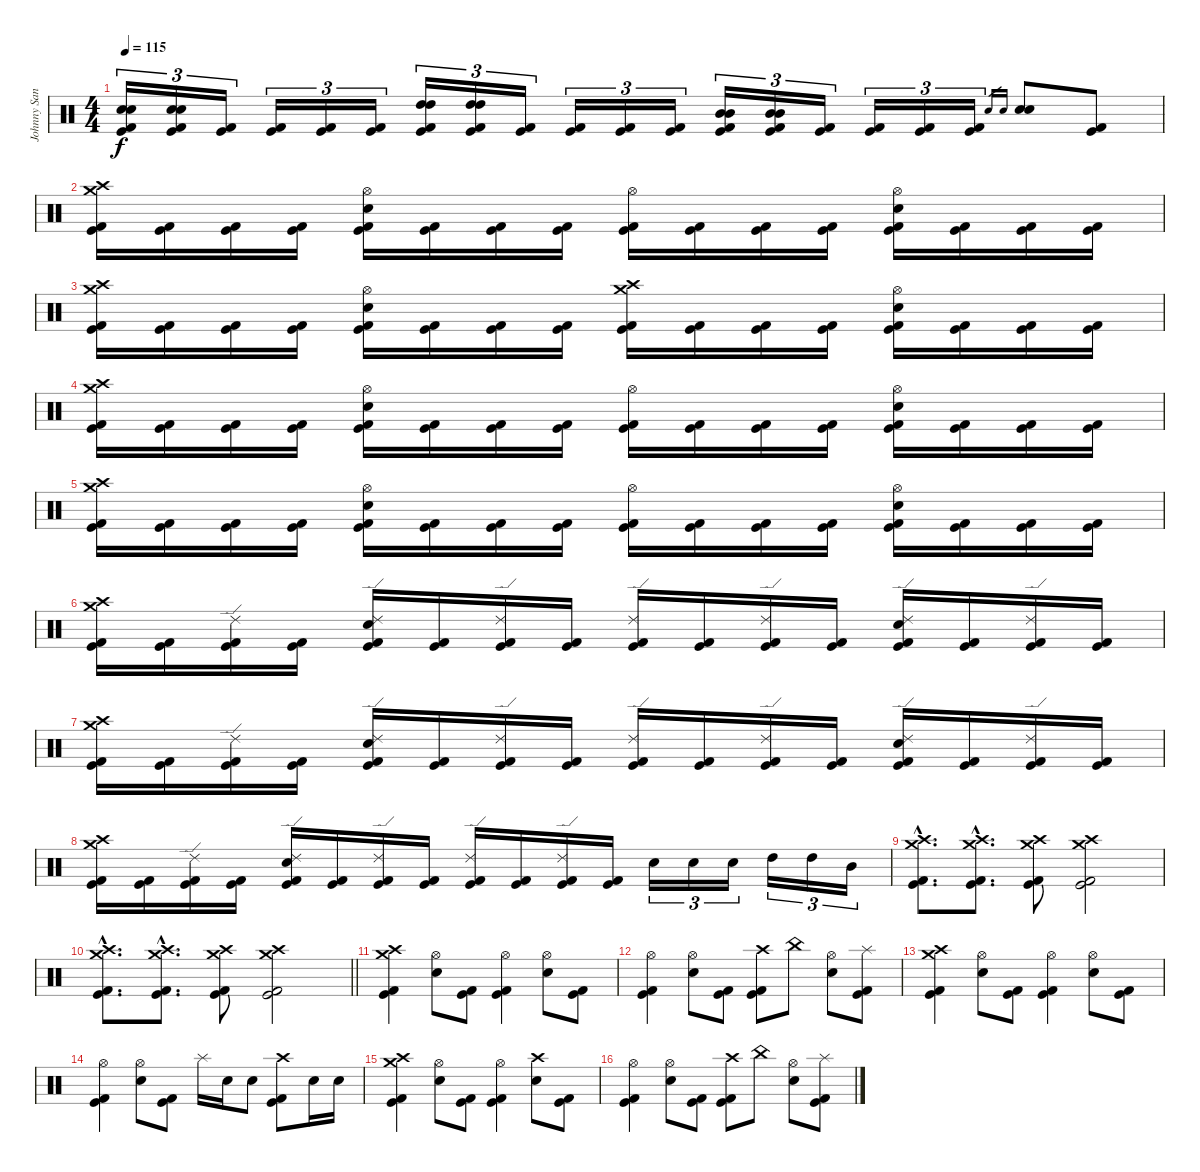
\track ("Johnny Sandin" "Johnny San") {instrument percussion}
\staff {score}
\articulation defaults
\ts (4 4)
\tempo 115
\clef neutral
\ks c
("Snare (hit) 2" "Snare (hit) 2" "Kick (hit) 2" "Kick (hit)").16{tu (3 2) dy f} ("Snare (hit) 2" "Snare (hit) 2" "Kick (hit) 2" "Kick (hit)").16{tu (3 2)} ("Kick (hit) 2" "Kick (hit)").16{tu (3 2)} ("Kick (hit) 2" "Kick (hit)").16{tu (3 2)} ("Kick (hit) 2" "Kick (hit)").16{tu (3 2)} ("Kick (hit) 2" "Kick (hit)").16{tu (3 2)} ("High Tom (hit)" "High Tom (hit)" "Kick (hit) 2" "Kick (hit)").16{tu (3 2)} ("High Tom (hit)" "High Tom (hit)" "Kick (hit) 2" "Kick (hit)").16{tu (3 2)} ("Kick (hit) 2" "Kick (hit)").16{tu (3 2)} ("Kick (hit) 2" "Kick (hit)").16{tu (3 2)} ("Kick (hit) 2" "Kick (hit)").16{tu (3 2)} ("Kick (hit) 2" "Kick (hit)").16{tu (3 2)} ("Mid Tom (hit)" "Mid Tom (hit)" "Kick (hit) 2" "Kick (hit)").16{tu (3 2)} ("Mid Tom (hit)" "Mid Tom (hit)" "Kick (hit) 2" "Kick (hit)").16{tu (3 2)} ("Kick (hit) 2" "Kick (hit)").16{tu (3 2)} ("Kick (hit) 2" "Kick (hit)").16{tu (3 2)} ("Kick (hit) 2" "Kick (hit)").16{tu (3 2)} ("Kick (hit) 2" "Kick (hit)").16{tu (3 2)} "Snare (hit) 2".16{gr} "Snare (hit) 2".16{gr} ("Snare (hit) 2" "Snare (hit) 2").8 ("Kick (hit) 2" "Kick (hit)").8 |
("Crash medium (hit)" "Crash high (hit)" "Kick (hit) 2" "Kick (hit)").16 ("Kick (hit) 2" "Kick (hit)").16 ("Kick (hit) 2" "Kick (hit)").16 ("Kick (hit) 2" "Kick (hit)").16 ("Hi-Hat (open)" "Snare (hit) 2" "Kick (hit) 2" "Kick (hit)").16 ("Kick (hit) 2" "Kick (hit)").16 ("Kick (hit) 2" "Kick (hit)").16 ("Kick (hit) 2" "Kick (hit)").16 ("Hi-Hat (open)" "Kick (hit) 2" "Kick (hit)").16 ("Kick (hit) 2" "Kick (hit)").16 ("Kick (hit) 2" "Kick (hit)").16 ("Kick (hit) 2" "Kick (hit)").16 ("Hi-Hat (open)" "Snare (hit) 2" "Kick (hit) 2" "Kick (hit)").16 ("Kick (hit) 2" "Kick (hit)").16 ("Kick (hit) 2" "Kick (hit)").16 ("Kick (hit) 2" "Kick (hit)").16 |
("Crash medium (hit)" "Crash high (hit)" "Kick (hit) 2" "Kick (hit)").16 ("Kick (hit) 2" "Kick (hit)").16 ("Kick (hit) 2" "Kick (hit)").16 ("Kick (hit) 2" "Kick (hit)").16 ("Hi-Hat (open)" "Snare (hit) 2" "Kick (hit) 2" "Kick (hit)").16 ("Kick (hit) 2" "Kick (hit)").16 ("Kick (hit) 2" "Kick (hit)").16 ("Kick (hit) 2" "Kick (hit)").16 ("Crash medium (hit)" "Crash high (hit)" "Kick (hit) 2" "Kick (hit)").16 ("Kick (hit) 2" "Kick (hit)").16 ("Kick (hit) 2" "Kick (hit)").16 ("Kick (hit) 2" "Kick (hit)").16 ("Hi-Hat (open)" "Snare (hit) 2" "Kick (hit) 2" "Kick (hit)").16 ("Kick (hit) 2" "Kick (hit)").16 ("Kick (hit) 2" "Kick (hit)").16 ("Kick (hit) 2" "Kick (hit)").16 |
("Crash medium (hit)" "Crash high (hit)" "Kick (hit) 2" "Kick (hit)").16 ("Kick (hit) 2" "Kick (hit)").16 ("Kick (hit) 2" "Kick (hit)").16 ("Kick (hit) 2" "Kick (hit)").16 ("Hi-Hat (open)" "Snare (hit) 2" "Kick (hit) 2" "Kick (hit)").16 ("Kick (hit) 2" "Kick (hit)").16 ("Kick (hit) 2" "Kick (hit)").16 ("Kick (hit) 2" "Kick (hit)").16 ("Hi-Hat (open)" "Kick (hit) 2" "Kick (hit)").16 ("Kick (hit) 2" "Kick (hit)").16 ("Kick (hit) 2" "Kick (hit)").16 ("Kick (hit) 2" "Kick (hit)").16 ("Hi-Hat (open)" "Snare (hit) 2" "Kick (hit) 2" "Kick (hit)").16 ("Kick (hit) 2" "Kick (hit)").16 ("Kick (hit) 2" "Kick (hit)").16 ("Kick (hit) 2" "Kick (hit)").16 |
("Crash medium (hit)" "Crash high (hit)" "Kick (hit) 2" "Kick (hit)").16 ("Kick (hit) 2" "Kick (hit)").16 ("Kick (hit) 2" "Kick (hit)").16 ("Kick (hit) 2" "Kick (hit)").16 ("Hi-Hat (open)" "Snare (hit) 2" "Kick (hit) 2" "Kick (hit)").16 ("Kick (hit) 2" "Kick (hit)").16 ("Kick (hit) 2" "Kick (hit)").16 ("Kick (hit) 2" "Kick (hit)").16 ("Hi-Hat (open)" "Kick (hit) 2" "Kick (hit)").16 ("Kick (hit) 2" "Kick (hit)").16 ("Kick (hit) 2" "Kick (hit)").16 ("Kick (hit) 2" "Kick (hit)").16 ("Hi-Hat (open)" "Snare (hit) 2" "Kick (hit) 2" "Kick (hit)").16 ("Kick (hit) 2" "Kick (hit)").16 ("Kick (hit) 2" "Kick (hit)").16 ("Kick (hit) 2" "Kick (hit)").16 |
("Crash medium (hit)" "Crash high (hit)" "Kick (hit) 2" "Kick (hit)").16 ("Kick (hit) 2" "Kick (hit)").16 ("Ride (edge) 2" "Kick (hit) 2" "Kick (hit)").16 ("Kick (hit) 2" "Kick (hit)").16 ("Ride (edge) 2" "Snare (hit) 2" "Kick (hit) 2" "Kick (hit)").16 ("Kick (hit) 2" "Kick (hit)").16 ("Ride (edge) 2" "Kick (hit) 2" "Kick (hit)").16 ("Kick (hit) 2" "Kick (hit)").16 ("Ride (edge) 2" "Kick (hit) 2" "Kick (hit)").16 ("Kick (hit) 2" "Kick (hit)").16 ("Ride (edge) 2" "Kick (hit) 2" "Kick (hit)").16 ("Kick (hit) 2" "Kick (hit)").16 ("Ride (edge) 2" "Snare (hit) 2" "Kick (hit) 2" "Kick (hit)").16 ("Kick (hit) 2" "Kick (hit)").16 ("Ride (edge) 2" "Kick (hit) 2" "Kick (hit)").16 ("Kick (hit) 2" "Kick (hit)").16 |
("Crash medium (hit)" "Crash high (hit)" "Kick (hit) 2" "Kick (hit)").16 ("Kick (hit) 2" "Kick (hit)").16 ("Ride (edge) 2" "Kick (hit) 2" "Kick (hit)").16 ("Kick (hit) 2" "Kick (hit)").16 ("Ride (edge) 2" "Snare (hit) 2" "Kick (hit) 2" "Kick (hit)").16 ("Kick (hit) 2" "Kick (hit)").16 ("Ride (edge) 2" "Kick (hit) 2" "Kick (hit)").16 ("Kick (hit) 2" "Kick (hit)").16 ("Ride (edge) 2" "Kick (hit) 2" "Kick (hit)").16 ("Kick (hit) 2" "Kick (hit)").16 ("Ride (edge) 2" "Kick (hit) 2" "Kick (hit)").16 ("Kick (hit) 2" "Kick (hit)").16 ("Ride (edge) 2" "Snare (hit) 2" "Kick (hit) 2" "Kick (hit)").16 ("Kick (hit) 2" "Kick (hit)").16 ("Ride (edge) 2" "Kick (hit) 2" "Kick (hit)").16 ("Kick (hit) 2" "Kick (hit)").16 |
("Crash medium (hit)" "Crash high (hit)" "Kick (hit) 2" "Kick (hit)").16 ("Kick (hit) 2" "Kick (hit)").16 ("Ride (edge) 2" "Kick (hit) 2" "Kick (hit)").16 ("Kick (hit) 2" "Kick (hit)").16 ("Ride (edge) 2" "Snare (hit) 2" "Kick (hit) 2" "Kick (hit)").16 ("Kick (hit) 2" "Kick (hit)").16 ("Ride (edge) 2" "Kick (hit) 2" "Kick (hit)").16 ("Kick (hit) 2" "Kick (hit)").16 ("Ride (edge) 2" "Kick (hit) 2" "Kick (hit)").16 ("Kick (hit) 2" "Kick (hit)").16 ("Ride (edge) 2" "Kick (hit) 2" "Kick (hit)").16 ("Kick (hit) 2" "Kick (hit)").16 "Snare (hit) 2".16{tu (3 2)} "Snare (hit) 2".16{tu (3 2)} "Snare (hit) 2".16{tu (3 2)} "High Tom (hit)".16{tu (3 2)} "High Tom (hit)".16{tu (3 2)} "Mid Tom (hit)".16{tu (3 2)} |
("Crash medium (hit)"{hac} "Crash high (hit)"{hac} "Kick (hit) 2"{hac} "Kick (hit)"{hac}).8{d} ("Crash medium (hit)"{hac} "Crash high (hit)"{hac} "Kick (hit) 2"{hac} "Kick (hit)"{hac}).8{d} ("Crash medium (hit)" "Crash high (hit)" "Kick (hit) 2" "Kick (hit)").8 ("Crash medium (hit)" "Crash high (hit)" "Kick (hit) 2" "Kick (hit)").2 |
\barLineRight lightlight
("Crash medium (hit)"{hac} "Crash high (hit)"{hac} "Kick (hit) 2"{hac} "Kick (hit)"{hac}).8{d} ("Crash medium (hit)"{hac} "Crash high (hit)"{hac} "Kick (hit) 2"{hac} "Kick (hit)"{hac}).8{d} ("Crash medium (hit)" "Crash high (hit)" "Kick (hit) 2" "Kick (hit)").8 ("Crash medium (hit)" "Crash high (hit)" "Kick (hit) 2" "Kick (hit)").2 |
("Crash medium (hit)" "Crash high (hit)" "Kick (hit) 2" "Kick (hit)").4 ("Hi-Hat (open)" "Snare (hit) 2").8 ("Kick (hit) 2" "Kick (hit)").8 ("Hi-Hat (open)" "Kick (hit) 2" "Kick (hit)").4 ("Hi-Hat (open)" "Snare (hit) 2").8 ("Kick (hit) 2" "Kick (hit)").8 |
("Hi-Hat (open)" "Kick (hit) 2" "Kick (hit)").4 ("Hi-Hat (open)" "Snare (hit) 2").8 ("Kick (hit) 2" "Kick (hit)").8 ("Crash high (hit)" "Kick (hit) 2" "Kick (hit)").8 "China (hit)".8 ("Hi-Hat (open)" "Snare (hit) 2").8 ("Splash (hit)" "Kick (hit) 2" "Kick (hit)").8 |
("Crash medium (hit)" "Crash high (hit)" "Kick (hit) 2" "Kick (hit)").4 ("Hi-Hat (open)" "Snare (hit) 2").8 ("Kick (hit) 2" "Kick (hit)").8 ("Hi-Hat (open)" "Kick (hit) 2" "Kick (hit)").4 ("Hi-Hat (open)" "Snare (hit) 2").8 ("Kick (hit) 2" "Kick (hit)").8 |
("Hi-Hat (open)" "Kick (hit) 2" "Kick (hit)").4 ("Hi-Hat (open)" "Snare (hit) 2").8 ("Kick (hit) 2" "Kick (hit)").8 "Splash (hit)".16 "Snare (hit) 2".16 "Snare (hit) 2".8 ("Crash high (hit)" "Kick (hit) 2" "Kick (hit)").8 "Snare (hit) 2".16 "Snare (hit) 2".16 |
("Crash medium (hit)" "Crash high (hit)" "Kick (hit) 2" "Kick (hit)").4 ("Hi-Hat (open)" "Snare (hit) 2").8 ("Kick (hit) 2" "Kick (hit)").8 ("Hi-Hat (open)" "Kick (hit) 2" "Kick (hit)").4 ("Crash high (hit)" "Snare (hit) 2").8 ("Kick (hit) 2" "Kick (hit)").8 |
("Hi-Hat (open)" "Kick (hit) 2" "Kick (hit)").4 ("Hi-Hat (open)" "Snare (hit) 2").8 ("Kick (hit) 2" "Kick (hit)").8 ("Crash high (hit)" "Kick (hit) 2" "Kick (hit)").8 "China (hit)".8 ("Hi-Hat (open)" "Snare (hit) 2").8 ("Splash (hit)" "Kick (hit) 2" "Kick (hit)").8
